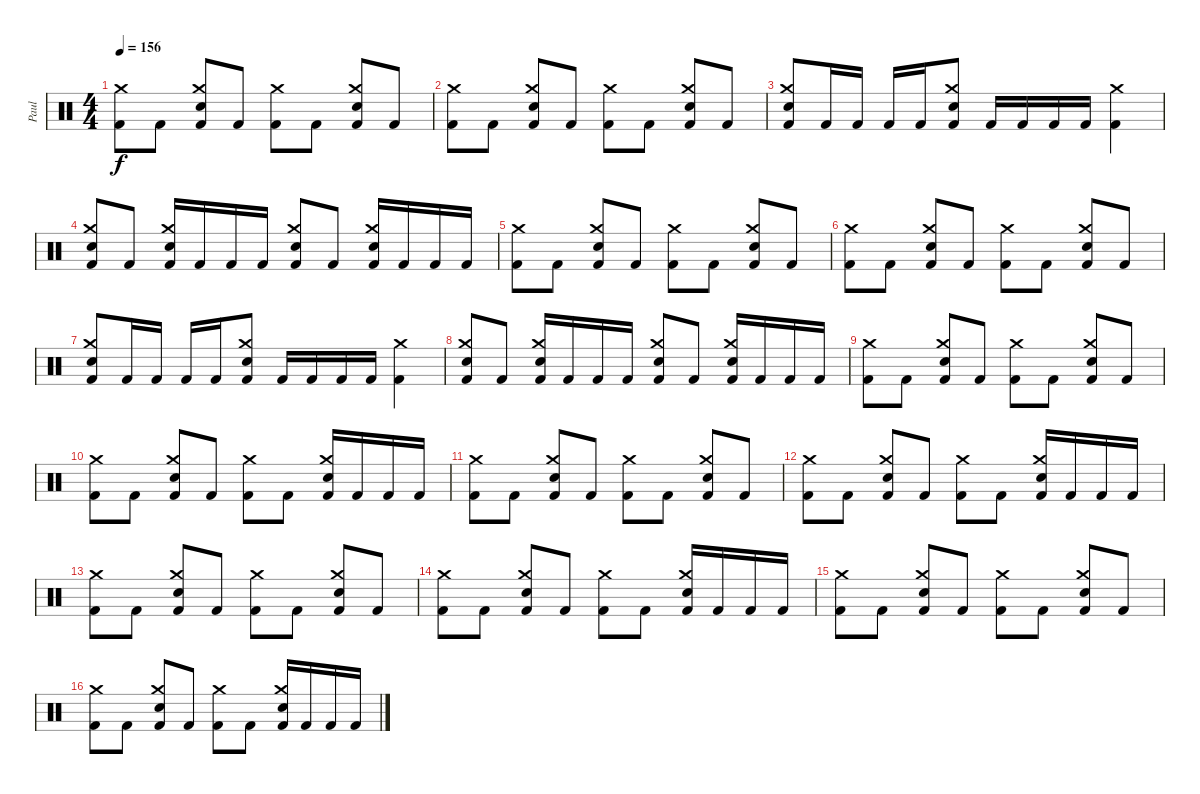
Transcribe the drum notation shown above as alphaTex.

\track ("Paul" "Paul") {instrument percussion}
\staff {score}
\articulation defaults
\ts (4 4)
\tempo 156
\clef neutral
\ks c
("Kick (hit) 2" "Crash medium (hit)").8{dy f} "Kick (hit) 2".8 ("Kick (hit) 2" "Snare (hit) 2" "Crash medium (hit)").8 "Kick (hit) 2".8 ("Kick (hit) 2" "Crash medium (hit)").8 "Kick (hit) 2".8 ("Kick (hit) 2" "Snare (hit) 2" "Crash medium (hit)").8 "Kick (hit) 2".8 |
("Kick (hit) 2" "Crash medium (hit)").8 "Kick (hit) 2".8 ("Kick (hit) 2" "Snare (hit) 2" "Crash medium (hit)").8 "Kick (hit) 2".8 ("Kick (hit) 2" "Crash medium (hit)").8 "Kick (hit) 2".8 ("Kick (hit) 2" "Snare (hit) 2" "Crash medium (hit)").8 "Kick (hit) 2".8 |
("Kick (hit) 2" "Snare (hit) 2" "Crash medium (hit)").8 "Kick (hit) 2".16 "Kick (hit) 2".16 "Kick (hit) 2".16 "Kick (hit) 2".16 ("Kick (hit) 2" "Snare (hit) 2" "Crash medium (hit)").8 "Kick (hit) 2".16 "Kick (hit) 2".16 "Kick (hit) 2".16 "Kick (hit) 2".16 ("Kick (hit) 2" "Crash medium (hit)").4 |
("Kick (hit) 2" "Snare (hit) 2" "Crash medium (hit)").8 "Kick (hit) 2".8 ("Kick (hit) 2" "Snare (hit) 2" "Crash medium (hit)").16 "Kick (hit) 2".16 "Kick (hit) 2".16 "Kick (hit) 2".16 ("Kick (hit) 2" "Snare (hit) 2" "Crash medium (hit)").8 "Kick (hit) 2".8 ("Kick (hit) 2" "Snare (hit) 2" "Crash medium (hit)").16 "Kick (hit) 2".16 "Kick (hit) 2".16 "Kick (hit) 2".16 |
("Kick (hit) 2" "Crash medium (hit)").8 "Kick (hit) 2".8 ("Kick (hit) 2" "Snare (hit) 2" "Crash medium (hit)").8 "Kick (hit) 2".8 ("Kick (hit) 2" "Crash medium (hit)").8 "Kick (hit) 2".8 ("Kick (hit) 2" "Snare (hit) 2" "Crash medium (hit)").8 "Kick (hit) 2".8 |
("Kick (hit) 2" "Crash medium (hit)").8 "Kick (hit) 2".8 ("Kick (hit) 2" "Snare (hit) 2" "Crash medium (hit)").8 "Kick (hit) 2".8 ("Kick (hit) 2" "Crash medium (hit)").8 "Kick (hit) 2".8 ("Kick (hit) 2" "Snare (hit) 2" "Crash medium (hit)").8 "Kick (hit) 2".8 |
("Kick (hit) 2" "Snare (hit) 2" "Crash medium (hit)").8 "Kick (hit) 2".16 "Kick (hit) 2".16 "Kick (hit) 2".16 "Kick (hit) 2".16 ("Kick (hit) 2" "Snare (hit) 2" "Crash medium (hit)").8 "Kick (hit) 2".16 "Kick (hit) 2".16 "Kick (hit) 2".16 "Kick (hit) 2".16 ("Kick (hit) 2" "Crash medium (hit)").4 |
("Kick (hit) 2" "Snare (hit) 2" "Crash medium (hit)").8 "Kick (hit) 2".8 ("Kick (hit) 2" "Snare (hit) 2" "Crash medium (hit)").16 "Kick (hit) 2".16 "Kick (hit) 2".16 "Kick (hit) 2".16 ("Kick (hit) 2" "Snare (hit) 2" "Crash medium (hit)").8 "Kick (hit) 2".8 ("Kick (hit) 2" "Snare (hit) 2" "Crash medium (hit)").16 "Kick (hit) 2".16 "Kick (hit) 2".16 "Kick (hit) 2".16 |
("Kick (hit) 2" "Crash medium (hit)").8 "Kick (hit) 2".8 ("Kick (hit) 2" "Snare (hit) 2" "Crash medium (hit)").8 "Kick (hit) 2".8 ("Kick (hit) 2" "Crash medium (hit)").8 "Kick (hit) 2".8 ("Kick (hit) 2" "Snare (hit) 2" "Crash medium (hit)").8 "Kick (hit) 2".8 |
("Kick (hit) 2" "Crash medium (hit)").8 "Kick (hit) 2".8 ("Kick (hit) 2" "Snare (hit) 2" "Crash medium (hit)").8 "Kick (hit) 2".8 ("Kick (hit) 2" "Crash medium (hit)").8 "Kick (hit) 2".8 ("Kick (hit) 2" "Snare (hit) 2" "Crash medium (hit)").16 "Kick (hit) 2".16 "Kick (hit) 2".16 "Kick (hit) 2".16 |
("Kick (hit) 2" "Crash medium (hit)").8 "Kick (hit) 2".8 ("Kick (hit) 2" "Snare (hit) 2" "Crash medium (hit)").8 "Kick (hit) 2".8 ("Kick (hit) 2" "Crash medium (hit)").8 "Kick (hit) 2".8 ("Kick (hit) 2" "Snare (hit) 2" "Crash medium (hit)").8 "Kick (hit) 2".8 |
("Kick (hit) 2" "Crash medium (hit)").8 "Kick (hit) 2".8 ("Kick (hit) 2" "Snare (hit) 2" "Crash medium (hit)").8 "Kick (hit) 2".8 ("Kick (hit) 2" "Crash medium (hit)").8 "Kick (hit) 2".8 ("Kick (hit) 2" "Snare (hit) 2" "Crash medium (hit)").16 "Kick (hit) 2".16 "Kick (hit) 2".16 "Kick (hit) 2".16 |
("Kick (hit) 2" "Crash medium (hit)").8 "Kick (hit) 2".8 ("Kick (hit) 2" "Snare (hit) 2" "Crash medium (hit)").8 "Kick (hit) 2".8 ("Kick (hit) 2" "Crash medium (hit)").8 "Kick (hit) 2".8 ("Kick (hit) 2" "Snare (hit) 2" "Crash medium (hit)").8 "Kick (hit) 2".8 |
("Kick (hit) 2" "Crash medium (hit)").8 "Kick (hit) 2".8 ("Kick (hit) 2" "Snare (hit) 2" "Crash medium (hit)").8 "Kick (hit) 2".8 ("Kick (hit) 2" "Crash medium (hit)").8 "Kick (hit) 2".8 ("Kick (hit) 2" "Snare (hit) 2" "Crash medium (hit)").16 "Kick (hit) 2".16 "Kick (hit) 2".16 "Kick (hit) 2".16 |
("Kick (hit) 2" "Crash medium (hit)").8 "Kick (hit) 2".8 ("Kick (hit) 2" "Snare (hit) 2" "Crash medium (hit)").8 "Kick (hit) 2".8 ("Kick (hit) 2" "Crash medium (hit)").8 "Kick (hit) 2".8 ("Kick (hit) 2" "Snare (hit) 2" "Crash medium (hit)").8 "Kick (hit) 2".8 |
("Kick (hit) 2" "Crash medium (hit)").8 "Kick (hit) 2".8 ("Kick (hit) 2" "Snare (hit) 2" "Crash medium (hit)").8 "Kick (hit) 2".8 ("Kick (hit) 2" "Crash medium (hit)").8 "Kick (hit) 2".8 ("Kick (hit) 2" "Snare (hit) 2" "Crash medium (hit)").16 "Kick (hit) 2".16 "Kick (hit) 2".16 "Kick (hit) 2".16
